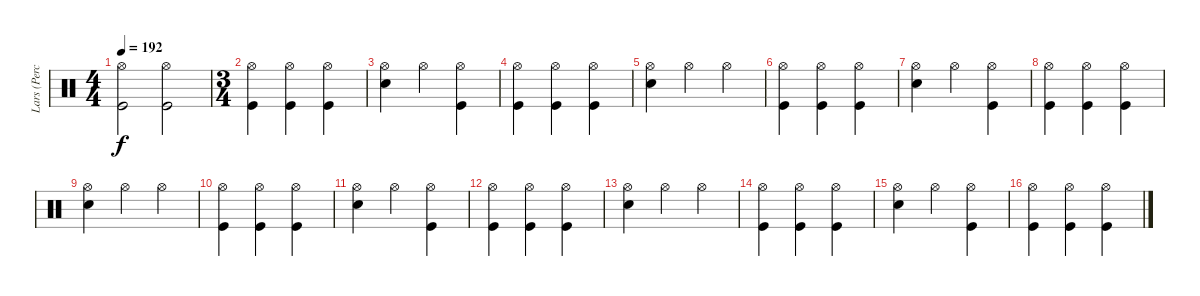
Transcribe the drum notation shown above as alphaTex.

\track ("Lars (Percussion)" "Lars (Perc") {instrument percussion}
\staff {score}
\articulation defaults
\ts (4 4)
\tempo 192
\clef neutral
\ks c
("Hi-Hat (open)" "Kick (hit)").2{dy f} ("Hi-Hat (open)" "Kick (hit)").2 |
\ts (3 4)
("Hi-Hat (open)" "Kick (hit)").4 ("Hi-Hat (open)" "Kick (hit)").4 ("Hi-Hat (open)" "Kick (hit)").4 |
("Hi-Hat (open)" "Snare (hit) 2").4 "Hi-Hat (open)".4 ("Hi-Hat (open)" "Kick (hit)").4 |
("Hi-Hat (open)" "Kick (hit)").4 ("Hi-Hat (open)" "Kick (hit)").4 ("Hi-Hat (open)" "Kick (hit)").4 |
("Hi-Hat (open)" "Snare (hit) 2").4 "Hi-Hat (open)".4 "Hi-Hat (open)".4 |
("Hi-Hat (open)" "Kick (hit)").4 ("Hi-Hat (open)" "Kick (hit)").4 ("Hi-Hat (open)" "Kick (hit)").4 |
("Hi-Hat (open)" "Snare (hit) 2").4 "Hi-Hat (open)".4 ("Hi-Hat (open)" "Kick (hit)").4 |
("Hi-Hat (open)" "Kick (hit)").4 ("Hi-Hat (open)" "Kick (hit)").4 ("Hi-Hat (open)" "Kick (hit)").4 |
("Hi-Hat (open)" "Snare (hit) 2").4 "Hi-Hat (open)".4 "Hi-Hat (open)".4 |
("Hi-Hat (open)" "Kick (hit)").4 ("Hi-Hat (open)" "Kick (hit)").4 ("Hi-Hat (open)" "Kick (hit)").4 |
("Hi-Hat (open)" "Snare (hit) 2").4 "Hi-Hat (open)".4 ("Hi-Hat (open)" "Kick (hit)").4 |
("Hi-Hat (open)" "Kick (hit)").4 ("Hi-Hat (open)" "Kick (hit)").4 ("Hi-Hat (open)" "Kick (hit)").4 |
("Hi-Hat (open)" "Snare (hit) 2").4 "Hi-Hat (open)".4 "Hi-Hat (open)".4 |
("Hi-Hat (open)" "Kick (hit)").4 ("Hi-Hat (open)" "Kick (hit)").4 ("Hi-Hat (open)" "Kick (hit)").4 |
("Hi-Hat (open)" "Snare (hit) 2").4 "Hi-Hat (open)".4 ("Hi-Hat (open)" "Kick (hit)").4 |
("Hi-Hat (open)" "Kick (hit)").4 ("Hi-Hat (open)" "Kick (hit)").4 ("Hi-Hat (open)" "Kick (hit)").4
